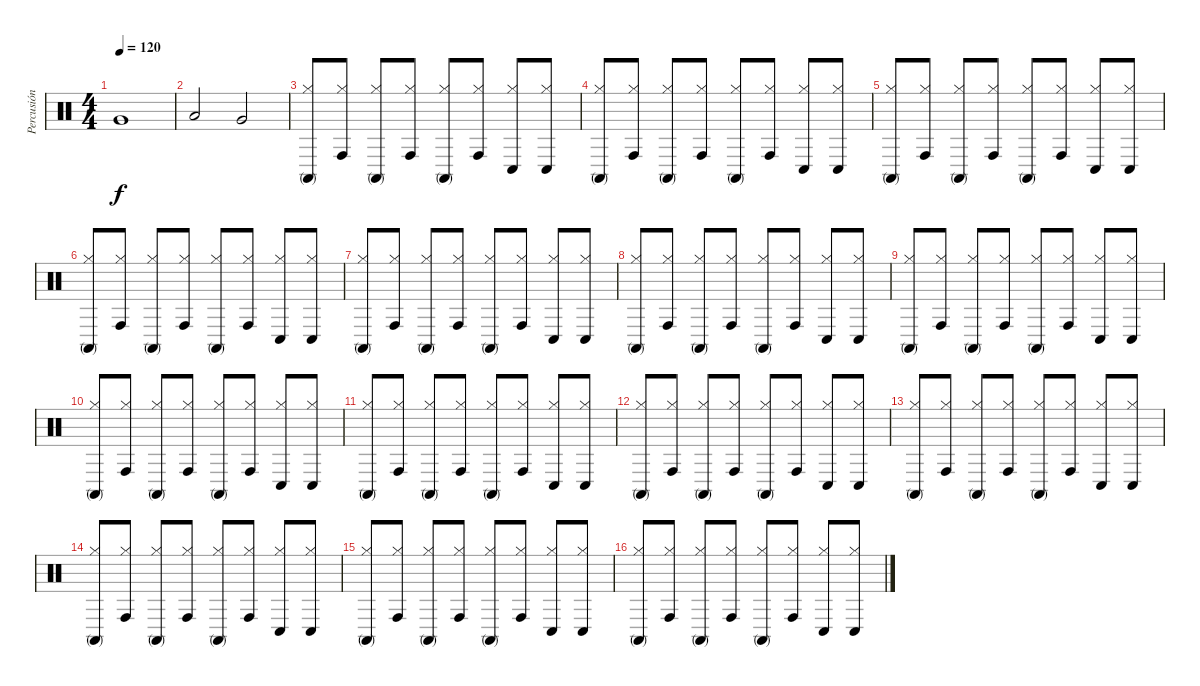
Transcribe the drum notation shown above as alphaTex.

\track ("Percusión" "Percusión") {instrument percussion}
\staff {score}
\articulation defaults
\ts (4 4)
\tempo 120
\clef neutral
\ks c "Very Low Tom (hit)".1{dy f}
|
"Low Floor Tom (hit)".2 "Very Low Tom (hit)".2 |
("Hi-Hat (closed)" "Conga high (mute)").8 ("Hi-Hat (closed)" "Conga high (hit)").8 ("Hi-Hat (closed)" "Conga high (mute)").8 ("Hi-Hat (closed)" "Conga high (hit)").8 ("Hi-Hat (closed)" "Conga high (mute)").8 ("Hi-Hat (closed)" "Conga high (hit)").8 ("Hi-Hat (closed)" "Conga low (hit)").8 ("Hi-Hat (closed)" "Conga low (hit)").8 |
("Hi-Hat (closed)" "Conga high (mute)").8 ("Hi-Hat (closed)" "Conga high (hit)").8 ("Hi-Hat (closed)" "Conga high (mute)").8 ("Hi-Hat (closed)" "Conga high (hit)").8 ("Hi-Hat (closed)" "Conga high (mute)").8 ("Hi-Hat (closed)" "Conga high (hit)").8 ("Hi-Hat (closed)" "Conga low (hit)").8 ("Hi-Hat (closed)" "Conga low (hit)").8 |
("Hi-Hat (closed)" "Conga high (mute)").8 ("Hi-Hat (closed)" "Conga high (hit)").8 ("Hi-Hat (closed)" "Conga high (mute)").8 ("Hi-Hat (closed)" "Conga high (hit)").8 ("Hi-Hat (closed)" "Conga high (mute)").8 ("Hi-Hat (closed)" "Conga high (hit)").8 ("Hi-Hat (closed)" "Conga low (hit)").8 ("Hi-Hat (closed)" "Conga low (hit)").8 |
("Hi-Hat (closed)" "Conga high (mute)").8 ("Hi-Hat (closed)" "Conga high (hit)").8 ("Hi-Hat (closed)" "Conga high (mute)").8 ("Hi-Hat (closed)" "Conga high (hit)").8 ("Hi-Hat (closed)" "Conga high (mute)").8 ("Hi-Hat (closed)" "Conga high (hit)").8 ("Hi-Hat (closed)" "Conga low (hit)").8 ("Hi-Hat (closed)" "Conga low (hit)").8 |
("Hi-Hat (closed)" "Conga high (mute)").8 ("Hi-Hat (closed)" "Conga high (hit)").8 ("Hi-Hat (closed)" "Conga high (mute)").8 ("Hi-Hat (closed)" "Conga high (hit)").8 ("Hi-Hat (closed)" "Conga high (mute)").8 ("Hi-Hat (closed)" "Conga high (hit)").8 ("Hi-Hat (closed)" "Conga low (hit)").8 ("Hi-Hat (closed)" "Conga low (hit)").8 |
("Hi-Hat (closed)" "Conga high (mute)").8 ("Hi-Hat (closed)" "Conga high (hit)").8 ("Hi-Hat (closed)" "Conga high (mute)").8 ("Hi-Hat (closed)" "Conga high (hit)").8 ("Hi-Hat (closed)" "Conga high (mute)").8 ("Hi-Hat (closed)" "Conga high (hit)").8 ("Hi-Hat (closed)" "Conga low (hit)").8 ("Hi-Hat (closed)" "Conga low (hit)").8 |
("Hi-Hat (closed)" "Conga high (mute)").8 ("Hi-Hat (closed)" "Conga high (hit)").8 ("Hi-Hat (closed)" "Conga high (mute)").8 ("Hi-Hat (closed)" "Conga high (hit)").8 ("Hi-Hat (closed)" "Conga high (mute)").8 ("Hi-Hat (closed)" "Conga high (hit)").8 ("Hi-Hat (closed)" "Conga low (hit)").8 ("Hi-Hat (closed)" "Conga low (hit)").8 |
("Hi-Hat (closed)" "Conga high (mute)").8 ("Hi-Hat (closed)" "Conga high (hit)").8 ("Hi-Hat (closed)" "Conga high (mute)").8 ("Hi-Hat (closed)" "Conga high (hit)").8 ("Hi-Hat (closed)" "Conga high (mute)").8 ("Hi-Hat (closed)" "Conga high (hit)").8 ("Hi-Hat (closed)" "Conga low (hit)").8 ("Hi-Hat (closed)" "Conga low (hit)").8 |
("Hi-Hat (closed)" "Conga high (mute)").8 ("Hi-Hat (closed)" "Conga high (hit)").8 ("Hi-Hat (closed)" "Conga high (mute)").8 ("Hi-Hat (closed)" "Conga high (hit)").8 ("Hi-Hat (closed)" "Conga high (mute)").8 ("Hi-Hat (closed)" "Conga high (hit)").8 ("Hi-Hat (closed)" "Conga low (hit)").8 ("Hi-Hat (closed)" "Conga low (hit)").8 |
("Hi-Hat (closed)" "Conga high (mute)").8 ("Hi-Hat (closed)" "Conga high (hit)").8 ("Hi-Hat (closed)" "Conga high (mute)").8 ("Hi-Hat (closed)" "Conga high (hit)").8 ("Hi-Hat (closed)" "Conga high (mute)").8 ("Hi-Hat (closed)" "Conga high (hit)").8 ("Hi-Hat (closed)" "Conga low (hit)").8 ("Hi-Hat (closed)" "Conga low (hit)").8 |
("Hi-Hat (closed)" "Conga high (mute)").8 ("Hi-Hat (closed)" "Conga high (hit)").8 ("Hi-Hat (closed)" "Conga high (mute)").8 ("Hi-Hat (closed)" "Conga high (hit)").8 ("Hi-Hat (closed)" "Conga high (mute)").8 ("Hi-Hat (closed)" "Conga high (hit)").8 ("Hi-Hat (closed)" "Conga low (hit)").8 ("Hi-Hat (closed)" "Conga low (hit)").8 |
("Hi-Hat (closed)" "Conga high (mute)").8 ("Hi-Hat (closed)" "Conga high (hit)").8 ("Hi-Hat (closed)" "Conga high (mute)").8 ("Hi-Hat (closed)" "Conga high (hit)").8 ("Hi-Hat (closed)" "Conga high (mute)").8 ("Hi-Hat (closed)" "Conga high (hit)").8 ("Hi-Hat (closed)" "Conga low (hit)").8 ("Hi-Hat (closed)" "Conga low (hit)").8 |
("Hi-Hat (closed)" "Conga high (mute)").8 ("Hi-Hat (closed)" "Conga high (hit)").8 ("Hi-Hat (closed)" "Conga high (mute)").8 ("Hi-Hat (closed)" "Conga high (hit)").8 ("Hi-Hat (closed)" "Conga high (mute)").8 ("Hi-Hat (closed)" "Conga high (hit)").8 ("Hi-Hat (closed)" "Conga low (hit)").8 ("Hi-Hat (closed)" "Conga low (hit)").8 |
("Hi-Hat (closed)" "Conga high (mute)").8 ("Hi-Hat (closed)" "Conga high (hit)").8 ("Hi-Hat (closed)" "Conga high (mute)").8 ("Hi-Hat (closed)" "Conga high (hit)").8 ("Hi-Hat (closed)" "Conga high (mute)").8 ("Hi-Hat (closed)" "Conga high (hit)").8 ("Hi-Hat (closed)" "Conga low (hit)").8 ("Hi-Hat (closed)" "Conga low (hit)").8
